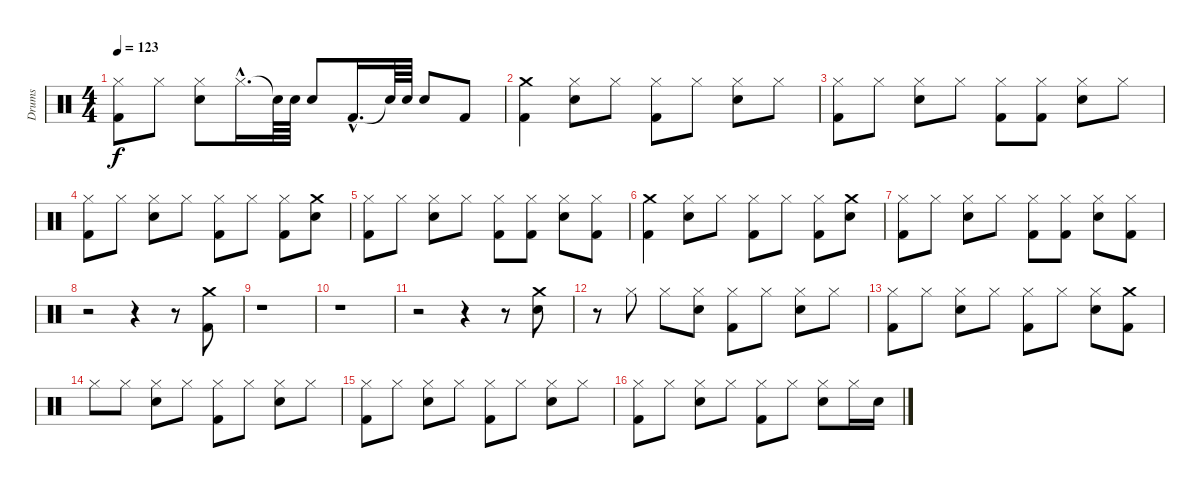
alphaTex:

\track ("Drums" "Drums") {instrument percussion}
\staff {score}
\articulation defaults
\ts (4 4)
\tempo 123
\clef neutral
\ks c
("Kick (hit) 2" "Hi-Hat (closed)").8{dy f} "Hi-Hat (closed)".8 ("Snare (hit) 2" "Hi-Hat (closed)").8 "Hi-Hat (closed)"{hac}.16{d} "Snare (hit)"{t}.64 "Snare (hit) 2".64 "Snare (hit) 2".8 "Kick (hit) 2"{hac}.16{d} "Snare (hit)"{t}.64 "Snare (hit) 2".64 "Snare (hit) 2".8 "Kick (hit) 2".8 |
("Kick (hit) 2" "Crash medium (hit)").4 ("Snare (hit) 2" "Hi-Hat (closed)").8 "Hi-Hat (closed)".8 ("Hi-Hat (closed)" "Kick (hit) 2").8 "Hi-Hat (closed)".8 ("Snare (hit) 2" "Hi-Hat (closed)").8 "Hi-Hat (closed)".8 |
("Hi-Hat (closed)" "Kick (hit) 2").8 "Hi-Hat (closed)".8 ("Snare (hit) 2" "Hi-Hat (closed)").8 "Hi-Hat (closed)".8 ("Kick (hit) 2" "Hi-Hat (closed)").8 ("Kick (hit) 2" "Hi-Hat (closed)").8 ("Snare (hit) 2" "Hi-Hat (closed)").8 "Hi-Hat (closed)".8 |
("Hi-Hat (closed)" "Kick (hit) 2").8 "Hi-Hat (closed)".8 ("Snare (hit) 2" "Hi-Hat (closed)").8 "Hi-Hat (closed)".8 ("Hi-Hat (closed)" "Kick (hit) 2").8 "Hi-Hat (closed)".8 ("Hi-Hat (closed)" "Kick (hit) 2").8 ("Crash medium (hit)" "Snare (hit) 2").8 |
("Hi-Hat (closed)" "Kick (hit) 2").8 "Hi-Hat (closed)".8 ("Snare (hit) 2" "Hi-Hat (closed)").8 "Hi-Hat (closed)".8 ("Kick (hit) 2" "Hi-Hat (closed)").8 ("Kick (hit) 2" "Hi-Hat (closed)").8 ("Snare (hit) 2" "Hi-Hat (closed)").8 ("Kick (hit) 2" "Hi-Hat (closed)").8 |
("Kick (hit) 2" "Crash medium (hit)").4 ("Hi-Hat (closed)" "Snare (hit) 2").8 "Hi-Hat (closed)".8 ("Kick (hit) 2" "Hi-Hat (closed)").8 "Hi-Hat (closed)".8 ("Kick (hit) 2" "Hi-Hat (closed)").8 ("Crash medium (hit)" "Snare (hit) 2").8 |
("Kick (hit) 2" "Hi-Hat (closed)").8 "Hi-Hat (closed)".8 ("Snare (hit) 2" "Hi-Hat (closed)").8 "Hi-Hat (closed)".8 ("Kick (hit) 2" "Hi-Hat (closed)").8 ("Kick (hit) 2" "Hi-Hat (closed)").8 ("Snare (hit) 2" "Hi-Hat (closed)").8 ("Kick (hit) 2" "Hi-Hat (closed)").8 |
r.2 r.4 r.8 ("Kick (hit) 2" "Crash medium (hit)").8 |
r.1 |
r.1 |
r.2 r.4 r.8 ("Snare (hit) 2" "Crash medium (hit)").8 |
r.8 "Hi-Hat (closed)".8 "Hi-Hat (closed)".8 ("Snare (hit) 2" "Hi-Hat (closed)").8 ("Kick (hit) 2" "Hi-Hat (closed)").8 "Hi-Hat (closed)".8 ("Snare (hit) 2" "Hi-Hat (closed)").8 "Hi-Hat (closed)".8 |
("Kick (hit) 2" "Hi-Hat (closed)").8 "Hi-Hat (closed)".8 ("Snare (hit) 2" "Hi-Hat (closed)").8 "Hi-Hat (closed)".8 ("Kick (hit) 2" "Hi-Hat (closed)").8 "Hi-Hat (closed)".8 ("Snare (hit) 2" "Hi-Hat (closed)").8 ("Crash medium (hit)" "Kick (hit) 2").8 |
"Hi-Hat (closed)".8 "Hi-Hat (closed)".8 ("Snare (hit) 2" "Hi-Hat (closed)").8 "Hi-Hat (closed)".8 ("Kick (hit) 2" "Hi-Hat (closed)").8 "Hi-Hat (closed)".8 ("Snare (hit) 2" "Hi-Hat (closed)").8 "Hi-Hat (closed)".8 |
("Kick (hit) 2" "Hi-Hat (closed)").8 "Hi-Hat (closed)".8 ("Snare (hit) 2" "Hi-Hat (closed)").8 "Hi-Hat (closed)".8 ("Kick (hit) 2" "Hi-Hat (closed)").8 "Hi-Hat (closed)".8 ("Snare (hit) 2" "Hi-Hat (closed)").8 "Hi-Hat (closed)".8 |
("Kick (hit) 2" "Hi-Hat (closed)").8 "Hi-Hat (closed)".8 ("Snare (hit) 2" "Hi-Hat (closed)").8 "Hi-Hat (closed)".8 ("Kick (hit) 2" "Hi-Hat (closed)").8 "Hi-Hat (closed)".8 ("Snare (hit) 2" "Hi-Hat (closed)").8 "Hi-Hat (closed)".16 "Snare (hit) 2".16
